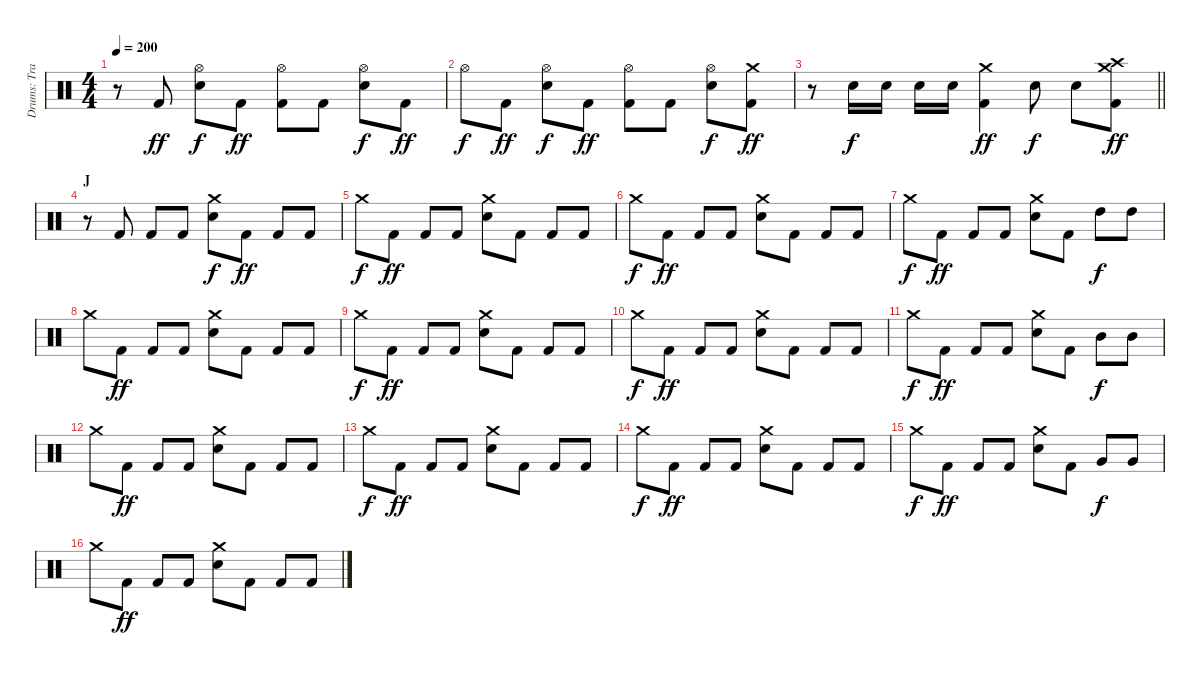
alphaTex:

\track ("Drums: Travis Clarke" "Drums: Tra") {instrument percussion}
\staff {score}
\articulation defaults
\ts (4 4)
\tempo 200
\clef neutral
\ks c
r.8{dy ff} "Kick (hit) 2".8 ("Snare (hit) 2" "Hi-Hat (open)").8{dy f} "Kick (hit) 2".8{dy ff} ("Kick (hit) 2" "Hi-Hat (open)").8 "Kick (hit) 2".8 ("Snare (hit) 2" "Hi-Hat (open)").8{dy f} "Kick (hit) 2".8{dy ff} |
"Hi-Hat (open)".8{dy f} "Kick (hit) 2".8{dy ff} ("Snare (hit) 2" "Hi-Hat (open)").8{dy f} "Kick (hit) 2".8{dy ff} ("Kick (hit) 2" "Hi-Hat (open)").8 "Kick (hit) 2".8 ("Snare (hit) 2" "Hi-Hat (open)").8{dy f} ("Kick (hit) 2" "Crash medium (hit)").8{dy ff} |
\barLineRight lightlight
r.8 "Snare (hit) 2".16{dy f} "Snare (hit) 2".16 "Snare (hit) 2".16 "Snare (hit) 2".16 ("Kick (hit) 2" "Crash medium (hit)").4{dy ff} "Snare (hit) 2".8{dy f} "Snare (hit) 2".8 ("Kick (hit) 2" "Crash high (hit)" "Crash medium (hit)").8{dy ff} |
\section ("" "J")
r.8 "Kick (hit) 2".8 "Kick (hit) 2".8 "Kick (hit) 2".8 ("Snare (hit) 2" "Crash medium (hit)").8{dy f} "Kick (hit) 2".8{dy ff} "Kick (hit) 2".8 "Kick (hit) 2".8 |
"Crash medium (hit)".8{dy f} "Kick (hit) 2".8{dy ff} "Kick (hit) 2".8 "Kick (hit) 2".8 ("Snare (hit) 2" "Crash medium (hit)").8 "Kick (hit) 2".8 "Kick (hit) 2".8 "Kick (hit) 2".8 |
"Crash medium (hit)".8{dy f} "Kick (hit) 2".8{dy ff} "Kick (hit) 2".8 "Kick (hit) 2".8 ("Snare (hit) 2" "Crash medium (hit)").8 "Kick (hit) 2".8 "Kick (hit) 2".8 "Kick (hit) 2".8 |
"Crash medium (hit)".8{dy f} "Kick (hit) 2".8{dy ff} "Kick (hit) 2".8 "Kick (hit) 2".8 ("Snare (hit) 2" "Crash medium (hit)").8 "Kick (hit) 2".8 "High Tom (hit)".8{dy f} "High Tom (hit)".8 |
"Crash medium (hit)".8 "Kick (hit) 2".8{dy ff} "Kick (hit) 2".8 "Kick (hit) 2".8 ("Snare (hit) 2" "Crash medium (hit)").8 "Kick (hit) 2".8 "Kick (hit) 2".8 "Kick (hit) 2".8 |
"Crash medium (hit)".8{dy f} "Kick (hit) 2".8{dy ff} "Kick (hit) 2".8 "Kick (hit) 2".8 ("Snare (hit) 2" "Crash medium (hit)").8 "Kick (hit) 2".8 "Kick (hit) 2".8 "Kick (hit) 2".8 |
"Crash medium (hit)".8{dy f} "Kick (hit) 2".8{dy ff} "Kick (hit) 2".8 "Kick (hit) 2".8 ("Snare (hit) 2" "Crash medium (hit)").8 "Kick (hit) 2".8 "Kick (hit) 2".8 "Kick (hit) 2".8 |
"Crash medium (hit)".8{dy f} "Kick (hit) 2".8{dy ff} "Kick (hit) 2".8 "Kick (hit) 2".8 ("Snare (hit) 2" "Crash medium (hit)").8 "Kick (hit) 2".8 "Mid Tom (hit)".8{dy f} "Mid Tom (hit)".8 |
"Crash medium (hit)".8 "Kick (hit) 2".8{dy ff} "Kick (hit) 2".8 "Kick (hit) 2".8 ("Snare (hit) 2" "Crash medium (hit)").8 "Kick (hit) 2".8 "Kick (hit) 2".8 "Kick (hit) 2".8 |
"Crash medium (hit)".8{dy f} "Kick (hit) 2".8{dy ff} "Kick (hit) 2".8 "Kick (hit) 2".8 ("Snare (hit) 2" "Crash medium (hit)").8 "Kick (hit) 2".8 "Kick (hit) 2".8 "Kick (hit) 2".8 |
"Crash medium (hit)".8{dy f} "Kick (hit) 2".8{dy ff} "Kick (hit) 2".8 "Kick (hit) 2".8 ("Snare (hit) 2" "Crash medium (hit)").8 "Kick (hit) 2".8 "Kick (hit) 2".8 "Kick (hit) 2".8 |
"Crash medium (hit)".8{dy f} "Kick (hit) 2".8{dy ff} "Kick (hit) 2".8 "Kick (hit) 2".8 ("Snare (hit) 2" "Crash medium (hit)").8 "Kick (hit) 2".8 "Very Low Tom (hit)".8{dy f} "Very Low Tom (hit)".8 |
"Crash medium (hit)".8 "Kick (hit) 2".8{dy ff} "Kick (hit) 2".8 "Kick (hit) 2".8 ("Snare (hit) 2" "Crash medium (hit)").8 "Kick (hit) 2".8 "Kick (hit) 2".8 "Kick (hit) 2".8
